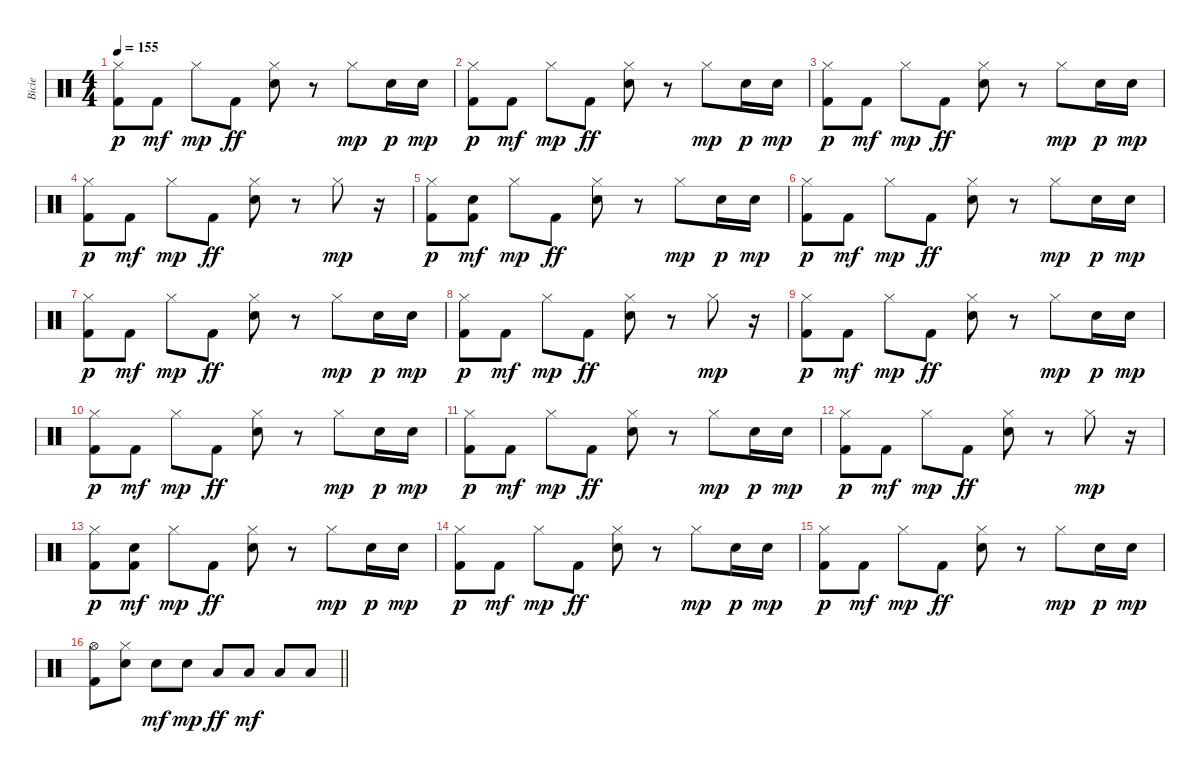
\track ("Bicie" "Bicie") {instrument percussion}
\staff {score}
\articulation defaults
\ts (4 4)
\tempo 155
\clef neutral
\ks c
("Hi-Hat (closed)" "Kick (hit) 2").8{dy p} "Kick (hit) 2".8{dy mf} "Hi-Hat (closed)".8{dy mp} "Kick (hit) 2".8{dy ff} ("Hi-Hat (closed)" "Electric Snare (hit)").8 r.8 "Hi-Hat (closed)".8{dy mp} "Electric Snare (hit)".16{dy p} "Electric Snare (hit)".16{dy mp} |
("Hi-Hat (closed)" "Kick (hit) 2").8{dy p} "Kick (hit) 2".8{dy mf} "Hi-Hat (closed)".8{dy mp} "Kick (hit) 2".8{dy ff} ("Hi-Hat (closed)" "Electric Snare (hit)").8 r.8 "Hi-Hat (closed)".8{dy mp} "Electric Snare (hit)".16{dy p} "Electric Snare (hit)".16{dy mp} |
("Hi-Hat (closed)" "Kick (hit) 2").8{dy p} "Kick (hit) 2".8{dy mf} "Hi-Hat (closed)".8{dy mp} "Kick (hit) 2".8{dy ff} ("Hi-Hat (closed)" "Electric Snare (hit)").8 r.8 "Hi-Hat (closed)".8{dy mp} "Electric Snare (hit)".16{dy p} "Electric Snare (hit)".16{dy mp} |
("Hi-Hat (closed)" "Kick (hit) 2").8{dy p} "Kick (hit) 2".8{dy mf} "Hi-Hat (closed)".8{dy mp} "Kick (hit) 2".8{dy ff} ("Hi-Hat (closed)" "Electric Snare (hit)").8 r.8 "Hi-Hat (closed)".8{dy mp} r.16 |
("Hi-Hat (closed)" "Kick (hit) 2").8{dy p} ("Electric Snare (hit)" "Kick (hit) 2").8{dy mf} "Hi-Hat (closed)".8{dy mp} "Kick (hit) 2".8{dy ff} ("Hi-Hat (closed)" "Electric Snare (hit)").8 r.8 "Hi-Hat (closed)".8{dy mp} "Electric Snare (hit)".16{dy p} "Electric Snare (hit)".16{dy mp} |
("Hi-Hat (closed)" "Kick (hit) 2").8{dy p} "Kick (hit) 2".8{dy mf} "Hi-Hat (closed)".8{dy mp} "Kick (hit) 2".8{dy ff} ("Hi-Hat (closed)" "Electric Snare (hit)").8 r.8 "Hi-Hat (closed)".8{dy mp} "Electric Snare (hit)".16{dy p} "Electric Snare (hit)".16{dy mp} |
("Hi-Hat (closed)" "Kick (hit) 2").8{dy p} "Kick (hit) 2".8{dy mf} "Hi-Hat (closed)".8{dy mp} "Kick (hit) 2".8{dy ff} ("Hi-Hat (closed)" "Electric Snare (hit)").8 r.8 "Hi-Hat (closed)".8{dy mp} "Electric Snare (hit)".16{dy p} "Electric Snare (hit)".16{dy mp} |
("Hi-Hat (closed)" "Kick (hit) 2").8{dy p} "Kick (hit) 2".8{dy mf} "Hi-Hat (closed)".8{dy mp} "Kick (hit) 2".8{dy ff} ("Hi-Hat (closed)" "Electric Snare (hit)").8 r.8 "Hi-Hat (closed)".8{dy mp} r.16 |
("Hi-Hat (closed)" "Kick (hit) 2").8{dy p} "Kick (hit) 2".8{dy mf} "Hi-Hat (closed)".8{dy mp} "Kick (hit) 2".8{dy ff} ("Hi-Hat (closed)" "Electric Snare (hit)").8 r.8 "Hi-Hat (closed)".8{dy mp} "Electric Snare (hit)".16{dy p} "Electric Snare (hit)".16{dy mp} |
("Hi-Hat (closed)" "Kick (hit) 2").8{dy p} "Kick (hit) 2".8{dy mf} "Hi-Hat (closed)".8{dy mp} "Kick (hit) 2".8{dy ff} ("Hi-Hat (closed)" "Electric Snare (hit)").8 r.8 "Hi-Hat (closed)".8{dy mp} "Electric Snare (hit)".16{dy p} "Electric Snare (hit)".16{dy mp} |
("Hi-Hat (closed)" "Kick (hit) 2").8{dy p} "Kick (hit) 2".8{dy mf} "Hi-Hat (closed)".8{dy mp} "Kick (hit) 2".8{dy ff} ("Hi-Hat (closed)" "Electric Snare (hit)").8 r.8 "Hi-Hat (closed)".8{dy mp} "Electric Snare (hit)".16{dy p} "Electric Snare (hit)".16{dy mp} |
("Hi-Hat (closed)" "Kick (hit) 2").8{dy p} "Kick (hit) 2".8{dy mf} "Hi-Hat (closed)".8{dy mp} "Kick (hit) 2".8{dy ff} ("Hi-Hat (closed)" "Electric Snare (hit)").8 r.8 "Hi-Hat (closed)".8{dy mp} r.16 |
("Hi-Hat (closed)" "Kick (hit) 2").8{dy p} ("Electric Snare (hit)" "Kick (hit) 2").8{dy mf} "Hi-Hat (closed)".8{dy mp} "Kick (hit) 2".8{dy ff} ("Hi-Hat (closed)" "Electric Snare (hit)").8 r.8 "Hi-Hat (closed)".8{dy mp} "Electric Snare (hit)".16{dy p} "Electric Snare (hit)".16{dy mp} |
("Hi-Hat (closed)" "Kick (hit) 2").8{dy p} "Kick (hit) 2".8{dy mf} "Hi-Hat (closed)".8{dy mp} "Kick (hit) 2".8{dy ff} ("Hi-Hat (closed)" "Electric Snare (hit)").8 r.8 "Hi-Hat (closed)".8{dy mp} "Electric Snare (hit)".16{dy p} "Electric Snare (hit)".16{dy mp} |
("Hi-Hat (closed)" "Kick (hit) 2").8{dy p} "Kick (hit) 2".8{dy mf} "Hi-Hat (closed)".8{dy mp} "Kick (hit) 2".8{dy ff} ("Hi-Hat (closed)" "Electric Snare (hit)").8 r.8 "Hi-Hat (closed)".8{dy mp} "Electric Snare (hit)".16{dy p} "Electric Snare (hit)".16{dy mp} |
\barLineRight lightlight
("Hi-Hat (open)" "Kick (hit) 2").8 ("Electric Snare (hit)" "Hi-Hat (closed)").8 "Electric Snare (hit)".8{dy mf} "Electric Snare (hit)".8{dy mp} "Low Tom (hit)".8{dy ff} "Low Tom (hit)".8{dy mf} "Low Floor Tom (hit)".8 "Low Floor Tom (hit)".8
